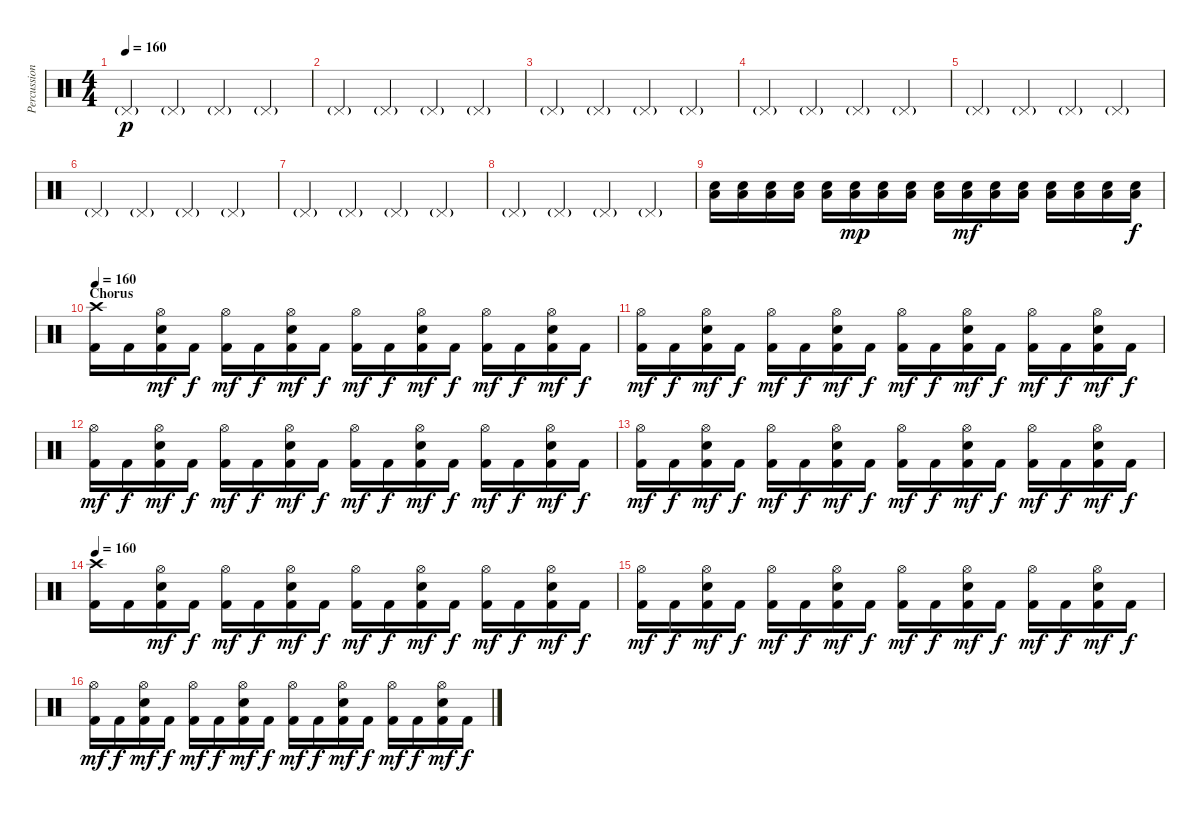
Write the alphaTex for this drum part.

\track ("Percussion" "Percussion") {instrument percussion}
\staff {score}
\articulation defaults
\ts (4 4)
\tempo 160
\tempo 80
\tempo 160
\clef neutral
\ks c "Pedal Hi-Hat (hit)"{g}.4{dy p} "Pedal Hi-Hat (hit)"{g}.4 "Pedal Hi-Hat (hit)"{g}.4 "Pedal Hi-Hat (hit)"{g}.4
|
"Pedal Hi-Hat (hit)"{g}.4 "Pedal Hi-Hat (hit)"{g}.4 "Pedal Hi-Hat (hit)"{g}.4 "Pedal Hi-Hat (hit)"{g}.4 |
"Pedal Hi-Hat (hit)"{g}.4 "Pedal Hi-Hat (hit)"{g}.4 "Pedal Hi-Hat (hit)"{g}.4 "Pedal Hi-Hat (hit)"{g}.4 |
"Pedal Hi-Hat (hit)"{g}.4 "Pedal Hi-Hat (hit)"{g}.4 "Pedal Hi-Hat (hit)"{g}.4 "Pedal Hi-Hat (hit)"{g}.4 |
"Pedal Hi-Hat (hit)"{g}.4 "Pedal Hi-Hat (hit)"{g}.4 "Pedal Hi-Hat (hit)"{g}.4 "Pedal Hi-Hat (hit)"{g}.4 |
"Pedal Hi-Hat (hit)"{g}.4 "Pedal Hi-Hat (hit)"{g}.4 "Pedal Hi-Hat (hit)"{g}.4 "Pedal Hi-Hat (hit)"{g}.4 |
"Pedal Hi-Hat (hit)"{g}.4 "Pedal Hi-Hat (hit)"{g}.4 "Pedal Hi-Hat (hit)"{g}.4 "Pedal Hi-Hat (hit)"{g}.4 |
"Pedal Hi-Hat (hit)"{g}.4 "Pedal Hi-Hat (hit)"{g}.4 "Pedal Hi-Hat (hit)"{g}.4 "Pedal Hi-Hat (hit)"{g}.4 |
("Electric Snare (hit)" "Low Tom (hit)").16 ("Electric Snare (hit)" "Low Tom (hit)").16 ("Electric Snare (hit)" "Low Tom (hit)").16 ("Electric Snare (hit)" "Low Tom (hit)").16 ("Electric Snare (hit)" "Low Tom (hit)").16 ("Electric Snare (hit)" "Low Tom (hit)").16{dy mp} ("Electric Snare (hit)" "Low Tom (hit)").16 ("Electric Snare (hit)" "Low Tom (hit)").16 ("Electric Snare (hit)" "Low Tom (hit)").16 ("Electric Snare (hit)" "Low Tom (hit)").16{dy mf} ("Electric Snare (hit)" "Low Tom (hit)").16 ("Electric Snare (hit)" "Low Tom (hit)").16 ("Electric Snare (hit)" "Low Tom (hit)").16 ("Electric Snare (hit)" "Low Tom (hit)").16 ("Electric Snare (hit)" "Low Tom (hit)").16 ("Electric Snare (hit)" "Low Tom (hit)").16{dy f} |
\section ("" "Chorus")
\tempo 160
("Crash high (hit)" "Kick (hit) 2").16 "Kick (hit) 2".16 ("Hi-Hat (open)" "Electric Snare (hit)" "Kick (hit) 2").16{dy mf} "Kick (hit) 2".16{dy f} ("Hi-Hat (open)" "Kick (hit) 2").16{dy mf} "Kick (hit) 2".16{dy f} ("Hi-Hat (open)" "Electric Snare (hit)" "Kick (hit) 2").16{dy mf} "Kick (hit) 2".16{dy f} ("Hi-Hat (open)" "Kick (hit) 2").16{dy mf} "Kick (hit) 2".16{dy f} ("Hi-Hat (open)" "Electric Snare (hit)" "Kick (hit) 2").16{dy mf} "Kick (hit) 2".16{dy f} ("Hi-Hat (open)" "Kick (hit) 2").16{dy mf} "Kick (hit) 2".16{dy f} ("Hi-Hat (open)" "Electric Snare (hit)" "Kick (hit) 2").16{dy mf} "Kick (hit) 2".16{dy f} |
("Hi-Hat (open)" "Kick (hit) 2").16{dy mf} "Kick (hit) 2".16{dy f} ("Hi-Hat (open)" "Electric Snare (hit)" "Kick (hit) 2").16{dy mf} "Kick (hit) 2".16{dy f} ("Hi-Hat (open)" "Kick (hit) 2").16{dy mf} "Kick (hit) 2".16{dy f} ("Hi-Hat (open)" "Electric Snare (hit)" "Kick (hit) 2").16{dy mf} "Kick (hit) 2".16{dy f} ("Hi-Hat (open)" "Kick (hit) 2").16{dy mf} "Kick (hit) 2".16{dy f} ("Hi-Hat (open)" "Electric Snare (hit)" "Kick (hit) 2").16{dy mf} "Kick (hit) 2".16{dy f} ("Hi-Hat (open)" "Kick (hit) 2").16{dy mf} "Kick (hit) 2".16{dy f} ("Hi-Hat (open)" "Electric Snare (hit)" "Kick (hit) 2").16{dy mf} "Kick (hit) 2".16{dy f} |
("Hi-Hat (open)" "Kick (hit) 2").16{dy mf} "Kick (hit) 2".16{dy f} ("Hi-Hat (open)" "Electric Snare (hit)" "Kick (hit) 2").16{dy mf} "Kick (hit) 2".16{dy f} ("Hi-Hat (open)" "Kick (hit) 2").16{dy mf} "Kick (hit) 2".16{dy f} ("Hi-Hat (open)" "Electric Snare (hit)" "Kick (hit) 2").16{dy mf} "Kick (hit) 2".16{dy f} ("Hi-Hat (open)" "Kick (hit) 2").16{dy mf} "Kick (hit) 2".16{dy f} ("Hi-Hat (open)" "Electric Snare (hit)" "Kick (hit) 2").16{dy mf} "Kick (hit) 2".16{dy f} ("Hi-Hat (open)" "Kick (hit) 2").16{dy mf} "Kick (hit) 2".16{dy f} ("Hi-Hat (open)" "Electric Snare (hit)" "Kick (hit) 2").16{dy mf} "Kick (hit) 2".16{dy f} |
("Hi-Hat (open)" "Kick (hit) 2").16{dy mf} "Kick (hit) 2".16{dy f} ("Hi-Hat (open)" "Electric Snare (hit)" "Kick (hit) 2").16{dy mf} "Kick (hit) 2".16{dy f} ("Hi-Hat (open)" "Kick (hit) 2").16{dy mf} "Kick (hit) 2".16{dy f} ("Hi-Hat (open)" "Electric Snare (hit)" "Kick (hit) 2").16{dy mf} "Kick (hit) 2".16{dy f} ("Hi-Hat (open)" "Kick (hit) 2").16{dy mf} "Kick (hit) 2".16{dy f} ("Hi-Hat (open)" "Electric Snare (hit)" "Kick (hit) 2").16{dy mf} "Kick (hit) 2".16{dy f} ("Hi-Hat (open)" "Kick (hit) 2").16{dy mf} "Kick (hit) 2".16{dy f} ("Hi-Hat (open)" "Electric Snare (hit)" "Kick (hit) 2").16{dy mf} "Kick (hit) 2".16{dy f} |
\tempo 160
("Crash high (hit)" "Kick (hit) 2").16 "Kick (hit) 2".16 ("Hi-Hat (open)" "Electric Snare (hit)" "Kick (hit) 2").16{dy mf} "Kick (hit) 2".16{dy f} ("Hi-Hat (open)" "Kick (hit) 2").16{dy mf} "Kick (hit) 2".16{dy f} ("Hi-Hat (open)" "Electric Snare (hit)" "Kick (hit) 2").16{dy mf} "Kick (hit) 2".16{dy f} ("Hi-Hat (open)" "Kick (hit) 2").16{dy mf} "Kick (hit) 2".16{dy f} ("Hi-Hat (open)" "Electric Snare (hit)" "Kick (hit) 2").16{dy mf} "Kick (hit) 2".16{dy f} ("Hi-Hat (open)" "Kick (hit) 2").16{dy mf} "Kick (hit) 2".16{dy f} ("Hi-Hat (open)" "Electric Snare (hit)" "Kick (hit) 2").16{dy mf} "Kick (hit) 2".16{dy f} |
("Hi-Hat (open)" "Kick (hit) 2").16{dy mf} "Kick (hit) 2".16{dy f} ("Hi-Hat (open)" "Electric Snare (hit)" "Kick (hit) 2").16{dy mf} "Kick (hit) 2".16{dy f} ("Hi-Hat (open)" "Kick (hit) 2").16{dy mf} "Kick (hit) 2".16{dy f} ("Hi-Hat (open)" "Electric Snare (hit)" "Kick (hit) 2").16{dy mf} "Kick (hit) 2".16{dy f} ("Hi-Hat (open)" "Kick (hit) 2").16{dy mf} "Kick (hit) 2".16{dy f} ("Hi-Hat (open)" "Electric Snare (hit)" "Kick (hit) 2").16{dy mf} "Kick (hit) 2".16{dy f} ("Hi-Hat (open)" "Kick (hit) 2").16{dy mf} "Kick (hit) 2".16{dy f} ("Hi-Hat (open)" "Electric Snare (hit)" "Kick (hit) 2").16{dy mf} "Kick (hit) 2".16{dy f} |
("Hi-Hat (open)" "Kick (hit) 2").16{dy mf} "Kick (hit) 2".16{dy f} ("Hi-Hat (open)" "Electric Snare (hit)" "Kick (hit) 2").16{dy mf} "Kick (hit) 2".16{dy f} ("Hi-Hat (open)" "Kick (hit) 2").16{dy mf} "Kick (hit) 2".16{dy f} ("Hi-Hat (open)" "Electric Snare (hit)" "Kick (hit) 2").16{dy mf} "Kick (hit) 2".16{dy f} ("Hi-Hat (open)" "Kick (hit) 2").16{dy mf} "Kick (hit) 2".16{dy f} ("Hi-Hat (open)" "Electric Snare (hit)" "Kick (hit) 2").16{dy mf} "Kick (hit) 2".16{dy f} ("Hi-Hat (open)" "Kick (hit) 2").16{dy mf} "Kick (hit) 2".16{dy f} ("Hi-Hat (open)" "Electric Snare (hit)" "Kick (hit) 2").16{dy mf} "Kick (hit) 2".16{dy f}
